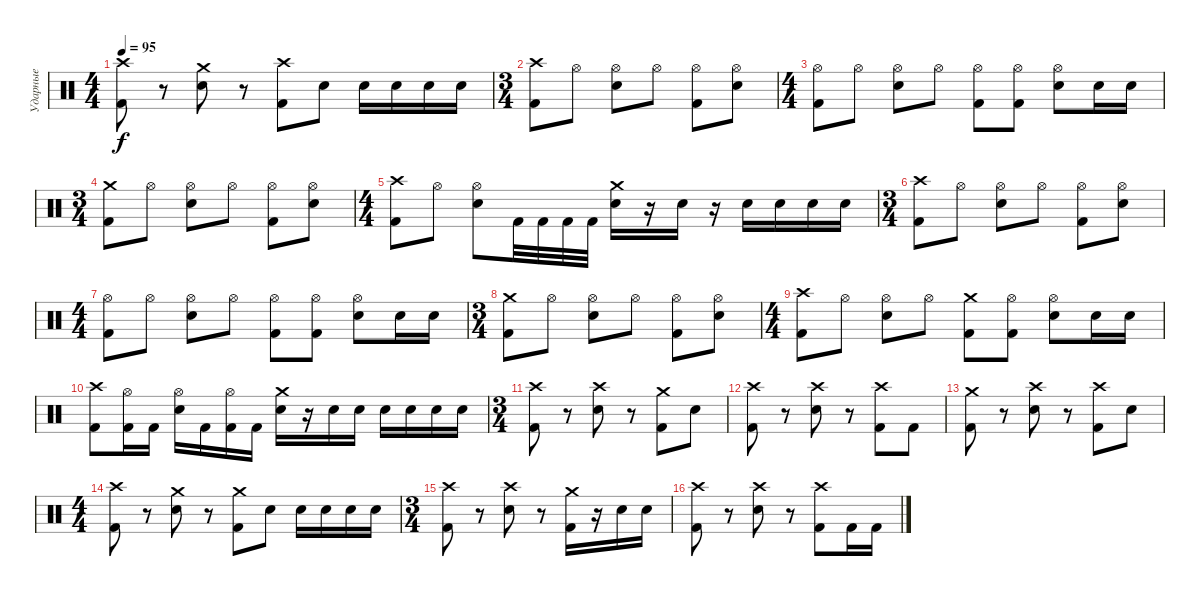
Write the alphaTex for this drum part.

\track ("Ударные" "Ударные") {instrument percussion}
\staff {score}
\articulation defaults
\ts (4 4)
\tempo 95
\clef neutral
\ks c
("Crash high (hit)" "Kick (hit) 2").8{dy f} r.8 ("Crash medium (hit)" "Snare (hit) 2").8 r.8 ("Crash high (hit)" "Kick (hit) 2").8 "Snare (hit) 2".8 "Snare (hit) 2".16 "Snare (hit) 2".16 "Snare (hit) 2".16 "Snare (hit) 2".16 |
\ts (3 4)
("Crash high (hit)" "Kick (hit) 2").8 "Hi-Hat (open)".8 ("Hi-Hat (open)" "Snare (hit) 2").8 "Hi-Hat (open)".8 ("Hi-Hat (open)" "Kick (hit) 2").8 ("Hi-Hat (open)" "Snare (hit) 2").8 |
\ts (4 4)
("Hi-Hat (open)" "Kick (hit) 2").8 "Hi-Hat (open)".8 ("Hi-Hat (open)" "Snare (hit) 2").8 "Hi-Hat (open)".8 ("Hi-Hat (open)" "Kick (hit) 2").8 ("Hi-Hat (open)" "Kick (hit) 2").8 ("Hi-Hat (open)" "Snare (hit) 2").8 "Snare (hit) 2".16 "Snare (hit) 2".16 |
\ts (3 4)
("Crash medium (hit)" "Kick (hit) 2").8 "Hi-Hat (open)".8 ("Hi-Hat (open)" "Snare (hit) 2").8 "Hi-Hat (open)".8 ("Hi-Hat (open)" "Kick (hit) 2").8 ("Hi-Hat (open)" "Snare (hit) 2").8 |
\ts (4 4)
("Crash high (hit)" "Kick (hit) 2").8 "Hi-Hat (open)".8 ("Hi-Hat (open)" "Snare (hit) 2").8 "Kick (hit) 2".32 "Kick (hit) 2".32 "Kick (hit) 2".32 "Kick (hit) 2".32 ("Crash medium (hit)" "Snare (hit) 2").16 r.16 "Snare (hit) 2".16 r.16 "Snare (hit) 2".16 "Snare (hit) 2".16 "Snare (hit) 2".16 "Snare (hit) 2".16 |
\ts (3 4)
("Crash high (hit)" "Kick (hit) 2").8 "Hi-Hat (open)".8 ("Hi-Hat (open)" "Snare (hit) 2").8 "Hi-Hat (open)".8 ("Hi-Hat (open)" "Kick (hit) 2").8 ("Hi-Hat (open)" "Snare (hit) 2").8 |
\ts (4 4)
("Hi-Hat (open)" "Kick (hit) 2").8 "Hi-Hat (open)".8 ("Hi-Hat (open)" "Snare (hit) 2").8 "Hi-Hat (open)".8 ("Hi-Hat (open)" "Kick (hit) 2").8 ("Hi-Hat (open)" "Kick (hit) 2").8 ("Hi-Hat (open)" "Snare (hit) 2").8 "Snare (hit) 2".16 "Snare (hit) 2".16 |
\ts (3 4)
("Crash medium (hit)" "Kick (hit) 2").8 "Hi-Hat (open)".8 ("Hi-Hat (open)" "Snare (hit) 2").8 "Hi-Hat (open)".8 ("Hi-Hat (open)" "Kick (hit) 2").8 ("Hi-Hat (open)" "Snare (hit) 2").8 |
\ts (4 4)
("Crash high (hit)" "Kick (hit) 2").8 "Hi-Hat (open)".8 ("Hi-Hat (open)" "Snare (hit) 2").8 "Hi-Hat (open)".8 ("Crash medium (hit)" "Kick (hit) 2").8 ("Hi-Hat (open)" "Kick (hit) 2").8 ("Hi-Hat (open)" "Snare (hit) 2").8 "Snare (hit) 2".16 "Snare (hit) 2".16 |
("Crash high (hit)" "Kick (hit) 2").8 ("Hi-Hat (open)" "Kick (hit) 2").16 "Kick (hit) 2".16 ("Hi-Hat (open)" "Snare (hit) 2").16 "Kick (hit) 2".16 ("Hi-Hat (open)" "Kick (hit) 2").16 "Kick (hit) 2".16 ("Crash medium (hit)" "Snare (hit) 2").16 r.16 "Snare (hit) 2".16 "Snare (hit) 2".16 "Snare (hit) 2".16 "Snare (hit) 2".16 "Snare (hit) 2".16 "Snare (hit) 2".16 |
\ts (3 4)
("Crash high (hit)" "Kick (hit) 2").8{volume 16} r.8 ("Crash high (hit)" "Snare (hit) 2").8 r.8 ("Crash medium (hit)" "Kick (hit) 2").8 "Snare (hit) 2".8 |
("Crash high (hit)" "Kick (hit) 2").8 r.8 ("Crash high (hit)" "Snare (hit) 2").8 r.8 ("Crash high (hit)" "Kick (hit) 2").8 "Kick (hit) 2".8 |
("Crash medium (hit)" "Kick (hit) 2").8 r.8 ("Crash high (hit)" "Snare (hit) 2").8 r.8 ("Crash high (hit)" "Kick (hit) 2").8 "Snare (hit) 2".8 |
\ts (4 4)
("Crash high (hit)" "Kick (hit) 2").8 r.8 ("Crash medium (hit)" "Snare (hit) 2").8 r.8 ("Crash medium (hit)" "Kick (hit) 2").8 "Snare (hit) 2".8 "Snare (hit) 2".16 "Snare (hit) 2".16 "Snare (hit) 2".16 "Snare (hit) 2".16 |
\ts (3 4)
("Crash high (hit)" "Kick (hit) 2").8{volume 16} r.8 ("Crash high (hit)" "Snare (hit) 2").8 r.8 ("Crash medium (hit)" "Kick (hit) 2").16 r.16 "Snare (hit) 2".16 "Snare (hit) 2".16 |
("Crash high (hit)" "Kick (hit) 2").8 r.8 ("Crash high (hit)" "Snare (hit) 2").8 r.8 ("Crash high (hit)" "Kick (hit) 2").8 "Kick (hit) 2".16 "Kick (hit) 2".16
